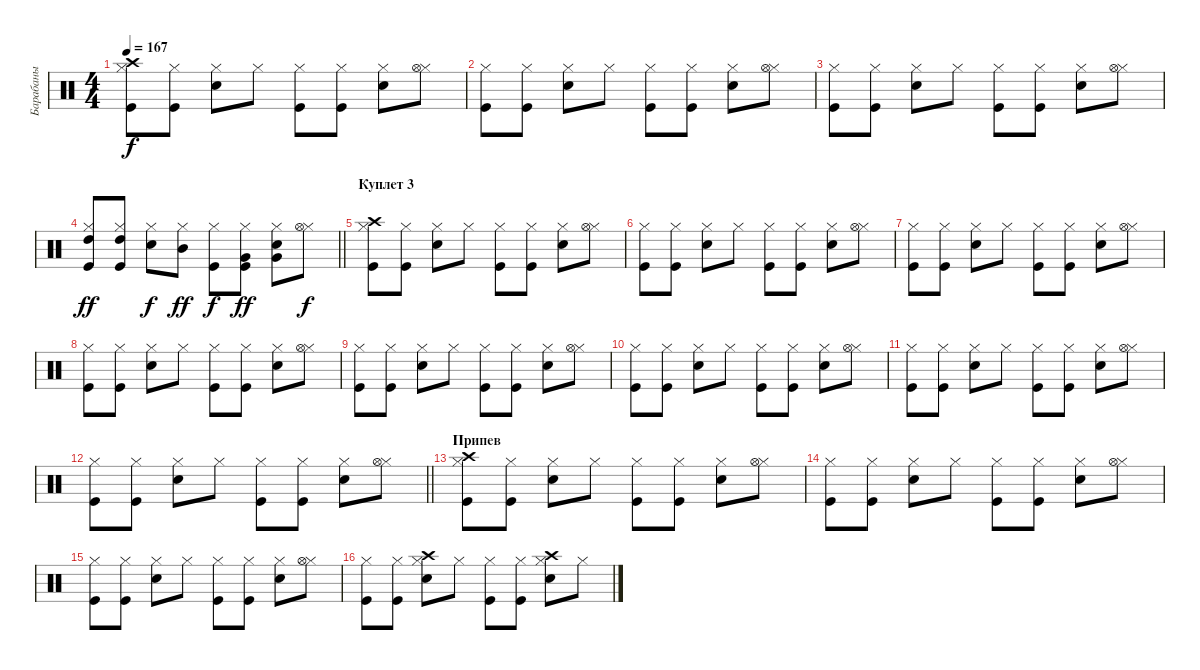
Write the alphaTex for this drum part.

\track ("Барабаны" "Барабаны") {instrument percussion}
\staff {score}
\articulation defaults
\ts (4 4)
\tempo 167
\clef neutral
\ks c
("Kick (hit)" "Hi-Hat (closed)" "Crash high (hit)").8{dy f} ("Kick (hit)" "Hi-Hat (closed)").8 ("Snare (hit) 2" "Hi-Hat (closed)").8 "Hi-Hat (closed)".8 ("Kick (hit)" "Hi-Hat (closed)").8 ("Kick (hit)" "Hi-Hat (closed)").8 ("Snare (hit) 2" "Hi-Hat (closed)").8 ("Hi-Hat (closed)" "Hi-Hat (open)").8 |
("Kick (hit)" "Hi-Hat (closed)").8 ("Kick (hit)" "Hi-Hat (closed)").8 ("Snare (hit) 2" "Hi-Hat (closed)").8 "Hi-Hat (closed)".8 ("Kick (hit)" "Hi-Hat (closed)").8 ("Kick (hit)" "Hi-Hat (closed)").8 ("Snare (hit) 2" "Hi-Hat (closed)").8 ("Hi-Hat (closed)" "Hi-Hat (open)").8 |
("Kick (hit)" "Hi-Hat (closed)").8 ("Kick (hit)" "Hi-Hat (closed)").8 ("Snare (hit) 2" "Hi-Hat (closed)").8 "Hi-Hat (closed)".8 ("Kick (hit)" "Hi-Hat (closed)").8 ("Kick (hit)" "Hi-Hat (closed)").8 ("Snare (hit) 2" "Hi-Hat (closed)").8 ("Hi-Hat (closed)" "Hi-Hat (open)").8 |
\barLineRight lightlight
("Kick (hit)" "Hi-Hat (closed)" "High Tom (hit)").8{dy ff} ("Kick (hit)" "Hi-Hat (closed)" "High Tom (hit)").8 ("Snare (hit) 2" "Hi-Hat (closed)").8{dy f} ("Hi-Hat (closed)" "Mid Tom (hit)").8{dy ff} ("Kick (hit)" "Hi-Hat (closed)").8{dy f} ("Kick (hit)" "Hi-Hat (closed)" "Very Low Tom (hit)").8{dy ff} ("Snare (hit) 2" "Hi-Hat (closed)" "Very Low Tom (hit)").8 ("Hi-Hat (closed)" "Hi-Hat (open)").8{dy f} |
\section ("" "Куплет 3")
("Kick (hit)" "Hi-Hat (closed)" "Crash high (hit)").8 ("Kick (hit)" "Hi-Hat (closed)").8 ("Snare (hit) 2" "Hi-Hat (closed)").8 "Hi-Hat (closed)".8 ("Kick (hit)" "Hi-Hat (closed)").8 ("Kick (hit)" "Hi-Hat (closed)").8 ("Snare (hit) 2" "Hi-Hat (closed)").8 ("Hi-Hat (closed)" "Hi-Hat (open)").8 |
("Kick (hit)" "Hi-Hat (closed)").8 ("Kick (hit)" "Hi-Hat (closed)").8 ("Snare (hit) 2" "Hi-Hat (closed)").8 "Hi-Hat (closed)".8 ("Kick (hit)" "Hi-Hat (closed)").8 ("Kick (hit)" "Hi-Hat (closed)").8 ("Snare (hit) 2" "Hi-Hat (closed)").8 ("Hi-Hat (closed)" "Hi-Hat (open)").8 |
("Kick (hit)" "Hi-Hat (closed)").8 ("Kick (hit)" "Hi-Hat (closed)").8 ("Snare (hit) 2" "Hi-Hat (closed)").8 "Hi-Hat (closed)".8 ("Kick (hit)" "Hi-Hat (closed)").8 ("Kick (hit)" "Hi-Hat (closed)").8 ("Snare (hit) 2" "Hi-Hat (closed)").8 ("Hi-Hat (closed)" "Hi-Hat (open)").8 |
("Kick (hit)" "Hi-Hat (closed)").8 ("Kick (hit)" "Hi-Hat (closed)").8 ("Snare (hit) 2" "Hi-Hat (closed)").8 "Hi-Hat (closed)".8 ("Kick (hit)" "Hi-Hat (closed)").8 ("Kick (hit)" "Hi-Hat (closed)").8 ("Snare (hit) 2" "Hi-Hat (closed)").8 ("Hi-Hat (closed)" "Hi-Hat (open)").8 |
("Kick (hit)" "Hi-Hat (closed)").8 ("Kick (hit)" "Hi-Hat (closed)").8 ("Snare (hit) 2" "Hi-Hat (closed)").8 "Hi-Hat (closed)".8 ("Kick (hit)" "Hi-Hat (closed)").8 ("Kick (hit)" "Hi-Hat (closed)").8 ("Snare (hit) 2" "Hi-Hat (closed)").8 ("Hi-Hat (closed)" "Hi-Hat (open)").8 |
("Kick (hit)" "Hi-Hat (closed)").8 ("Kick (hit)" "Hi-Hat (closed)").8 ("Snare (hit) 2" "Hi-Hat (closed)").8 "Hi-Hat (closed)".8 ("Kick (hit)" "Hi-Hat (closed)").8 ("Kick (hit)" "Hi-Hat (closed)").8 ("Snare (hit) 2" "Hi-Hat (closed)").8 ("Hi-Hat (closed)" "Hi-Hat (open)").8 |
("Kick (hit)" "Hi-Hat (closed)").8 ("Kick (hit)" "Hi-Hat (closed)").8 ("Snare (hit) 2" "Hi-Hat (closed)").8 "Hi-Hat (closed)".8 ("Kick (hit)" "Hi-Hat (closed)").8 ("Kick (hit)" "Hi-Hat (closed)").8 ("Snare (hit) 2" "Hi-Hat (closed)").8 ("Hi-Hat (closed)" "Hi-Hat (open)").8 |
\barLineRight lightlight
("Kick (hit)" "Hi-Hat (closed)").8 ("Kick (hit)" "Hi-Hat (closed)").8 ("Snare (hit) 2" "Hi-Hat (closed)").8 "Hi-Hat (closed)".8 ("Kick (hit)" "Hi-Hat (closed)").8 ("Kick (hit)" "Hi-Hat (closed)").8 ("Snare (hit) 2" "Hi-Hat (closed)").8 ("Hi-Hat (closed)" "Hi-Hat (open)").8 |
\section ("" "Припев")
("Kick (hit)" "Hi-Hat (closed)" "Crash high (hit)").8 ("Kick (hit)" "Hi-Hat (closed)").8 ("Snare (hit) 2" "Hi-Hat (closed)").8 "Hi-Hat (closed)".8 ("Kick (hit)" "Hi-Hat (closed)").8 ("Kick (hit)" "Hi-Hat (closed)").8 ("Snare (hit) 2" "Hi-Hat (closed)").8 ("Hi-Hat (closed)" "Hi-Hat (open)").8 |
("Kick (hit)" "Hi-Hat (closed)").8 ("Kick (hit)" "Hi-Hat (closed)").8 ("Snare (hit) 2" "Hi-Hat (closed)").8 "Hi-Hat (closed)".8 ("Kick (hit)" "Hi-Hat (closed)").8 ("Kick (hit)" "Hi-Hat (closed)").8 ("Snare (hit) 2" "Hi-Hat (closed)").8 ("Hi-Hat (closed)" "Hi-Hat (open)").8 |
("Kick (hit)" "Hi-Hat (closed)").8 ("Kick (hit)" "Hi-Hat (closed)").8 ("Snare (hit) 2" "Hi-Hat (closed)").8 "Hi-Hat (closed)".8 ("Kick (hit)" "Hi-Hat (closed)").8 ("Kick (hit)" "Hi-Hat (closed)").8 ("Snare (hit) 2" "Hi-Hat (closed)").8 ("Hi-Hat (closed)" "Hi-Hat (open)").8 |
("Kick (hit)" "Hi-Hat (closed)").8 ("Kick (hit)" "Hi-Hat (closed)").8 ("Snare (hit) 2" "Hi-Hat (closed)" "Crash high (hit)").8 "Hi-Hat (closed)".8 ("Kick (hit)" "Hi-Hat (closed)").8 ("Kick (hit)" "Hi-Hat (closed)").8 ("Snare (hit) 2" "Hi-Hat (closed)" "Crash high (hit)").8 "Hi-Hat (closed)".8
